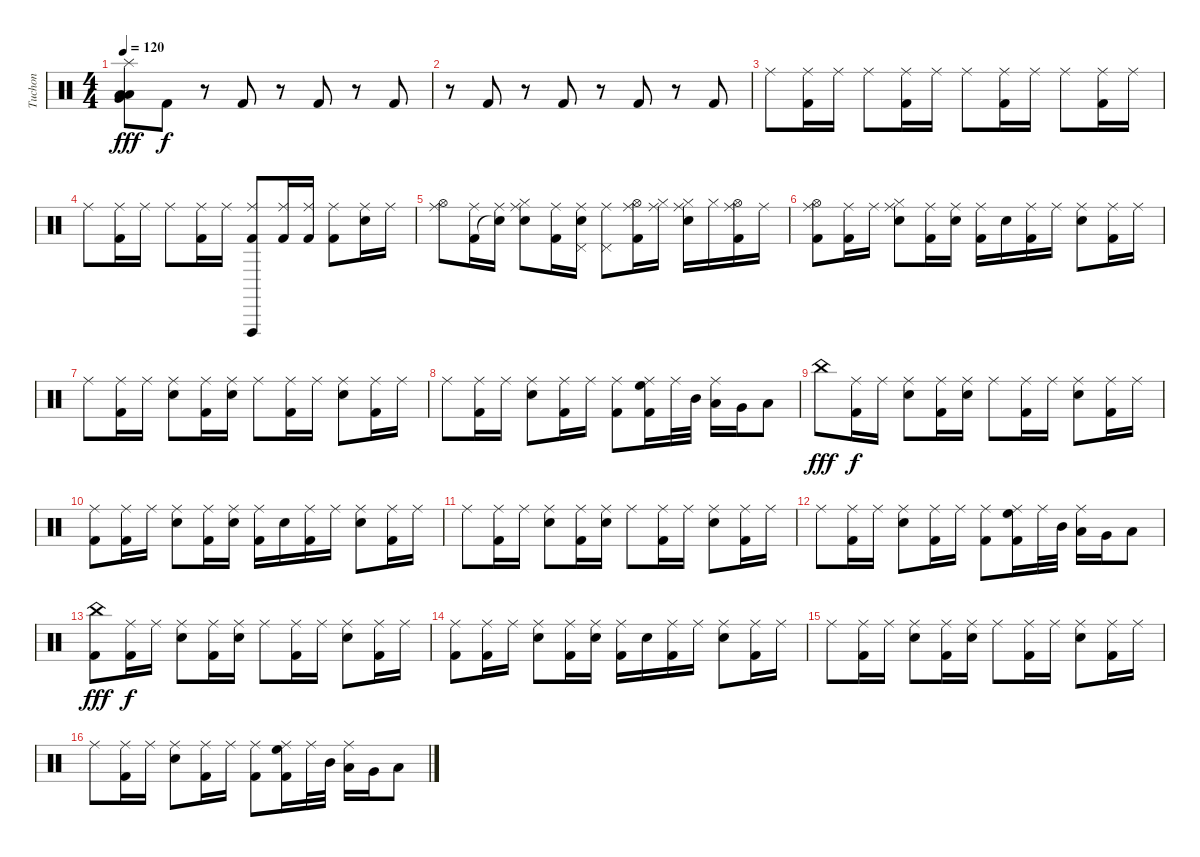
\track ("Tuchon" "Tuchon") {instrument percussion}
\staff {score}
\articulation defaults
\ts (4 4)
\tempo 120
\clef neutral
\ks c
("Splash (hit)" "Low Tom (hit)" "Very Low Tom (hit)" "Low Floor Tom (hit)").8{dy fff} "Kick (hit) 2".8{dy f} r.8 "Kick (hit) 2".8 r.8 "Kick (hit) 2".8 r.8 "Kick (hit) 2".8 |
r.8 "Kick (hit) 2".8 r.8 "Kick (hit) 2".8 r.8 "Kick (hit) 2".8 r.8 "Kick (hit) 2".8 |
"Ride (middle)".8 ("Ride (middle)" "Kick (hit) 2").16 "Ride (middle)".16 "Ride (middle)".8 ("Ride (middle)" "Kick (hit) 2").16 "Ride (middle)".16 "Ride (middle)".8 ("Ride (middle)" "Kick (hit) 2").16 "Ride (middle)".16 "Ride (middle)".8 ("Ride (middle)" "Kick (hit) 2").16 "Ride (middle)".16 |
"Ride (middle)".8 ("Ride (middle)" "Kick (hit) 2").16 "Ride (middle)".16 "Ride (middle)".8 ("Ride (middle)" "Kick (hit) 2").16 "Ride (middle)".16 ("Ride (middle)" "Vibraslap (hit)" "Kick (hit) 2").8 ("Ride (middle)" "Kick (hit) 2").16 ("Ride (middle)" "Kick (hit) 2").16 ("Ride (middle)" "Kick (hit) 2").8 ("Ride (middle)" "Electric Snare (hit)").16 "Ride (middle)".16 |
("Ride (middle)" "Hi-Hat (open)").8 ("Ride (middle)" "Kick (hit) 2").16 ("Ride (middle)" "Snare (hit)"{t}).16 ("Ride (middle)" "Hi-Hat (closed)" "Electric Snare (hit)").8 ("Ride (middle)" "Kick (hit) 2").16 ("Ride (middle)" "Pedal Hi-Hat (hit)" "Electric Snare (hit)").16 ("Ride (middle)" "Pedal Hi-Hat (hit)").8 ("Ride (middle)" "Hi-Hat (open)" "Kick (hit) 2").16 ("Ride (middle)" "Hi-Hat (closed)").16 ("Ride (middle)" "Hi-Hat (closed)" "Electric Snare (hit)").16 "Hi-Hat (closed)".16 ("Ride (middle)" "Hi-Hat (open)" "Kick (hit) 2").16 "Ride (middle)".16 |
("Ride (middle)" "Hi-Hat (open)" "Kick (hit) 2").8 ("Ride (middle)" "Kick (hit) 2").16 "Ride (middle)".16 ("Ride (middle)" "Hi-Hat (closed)" "Electric Snare (hit)").8 ("Ride (middle)" "Kick (hit) 2").16 ("Ride (middle)" "Electric Snare (hit)").16 ("Ride (middle)" "Kick (hit) 2").16 "Electric Snare (hit)".16 ("Ride (middle)" "Kick (hit) 2").16 "Ride (middle)".16 ("Ride (middle)" "Electric Snare (hit)").8 ("Ride (middle)" "Kick (hit) 2").16 "Ride (middle)".16 |
"Ride (middle)".8 ("Ride (middle)" "Kick (hit) 2").16 "Ride (middle)".16 ("Ride (middle)" "Electric Snare (hit)").8 ("Ride (middle)" "Kick (hit) 2").16 ("Ride (middle)" "Electric Snare (hit)").16 "Ride (middle)".8 ("Ride (middle)" "Kick (hit) 2").16 "Ride (middle)".16 ("Ride (middle)" "Electric Snare (hit)").8 ("Ride (middle)" "Kick (hit) 2").16 "Ride (middle)".16 |
"Ride (middle)".8 ("Ride (middle)" "Kick (hit) 2").16 "Ride (middle)".16 ("Ride (middle)" "Electric Snare (hit)").8 ("Ride (middle)" "Kick (hit) 2").16 "Ride (middle)".16 ("Ride (middle)" "Kick (hit) 2").8 ("Ride (middle)" "High Floor Tom (hit)" "Kick (hit) 2").16 "Ride (middle)".32 "Mid Tom (hit)".32 ("Ride (middle)" "Low Tom (hit)").16 "Very Low Tom (hit)".16 "Low Floor Tom (hit)".8 |
"China (hit)".8{dy fff} ("Ride (middle)" "Kick (hit) 2").16{dy f} "Ride (middle)".16 ("Ride (middle)" "Electric Snare (hit)").8 ("Ride (middle)" "Kick (hit) 2").16 ("Ride (middle)" "Electric Snare (hit)").16 "Ride (middle)".8 ("Ride (middle)" "Kick (hit) 2").16 "Ride (middle)".16 ("Ride (middle)" "Electric Snare (hit)").8 ("Ride (middle)" "Kick (hit) 2").16 "Ride (middle)".16 |
("Ride (middle)" "Kick (hit) 2").8 ("Ride (middle)" "Kick (hit) 2").16 "Ride (middle)".16 ("Ride (middle)" "Electric Snare (hit)").8 ("Ride (middle)" "Kick (hit) 2").16 ("Ride (middle)" "Electric Snare (hit)").16 ("Ride (middle)" "Kick (hit) 2").16 "Electric Snare (hit)".16 ("Ride (middle)" "Kick (hit) 2").16 "Ride (middle)".16 ("Ride (middle)" "Electric Snare (hit)").8 ("Ride (middle)" "Kick (hit) 2").16 "Ride (middle)".16 |
"Ride (middle)".8 ("Ride (middle)" "Kick (hit) 2").16 "Ride (middle)".16 ("Ride (middle)" "Electric Snare (hit)").8 ("Ride (middle)" "Kick (hit) 2").16 ("Ride (middle)" "Electric Snare (hit)").16 "Ride (middle)".8 ("Ride (middle)" "Kick (hit) 2").16 "Ride (middle)".16 ("Ride (middle)" "Electric Snare (hit)").8 ("Ride (middle)" "Kick (hit) 2").16 "Ride (middle)".16 |
"Ride (middle)".8 ("Ride (middle)" "Kick (hit) 2").16 "Ride (middle)".16 ("Ride (middle)" "Electric Snare (hit)").8 ("Ride (middle)" "Kick (hit) 2").16 "Ride (middle)".16 ("Ride (middle)" "Kick (hit) 2").8 ("Ride (middle)" "High Floor Tom (hit)" "Kick (hit) 2").16 "Ride (middle)".32 "Mid Tom (hit)".32 ("Ride (middle)" "Low Tom (hit)").16 "Very Low Tom (hit)".16 "Low Floor Tom (hit)".8 |
("China (hit)" "Kick (hit) 2").8{dy fff} ("Ride (middle)" "Kick (hit) 2").16{dy f} "Ride (middle)".16 ("Ride (middle)" "Electric Snare (hit)").8 ("Ride (middle)" "Kick (hit) 2").16 ("Ride (middle)" "Electric Snare (hit)").16 "Ride (middle)".8 ("Ride (middle)" "Kick (hit) 2").16 "Ride (middle)".16 ("Ride (middle)" "Electric Snare (hit)").8 ("Ride (middle)" "Kick (hit) 2").16 "Ride (middle)".16 |
("Ride (middle)" "Kick (hit) 2").8 ("Ride (middle)" "Kick (hit) 2").16 "Ride (middle)".16 ("Ride (middle)" "Electric Snare (hit)").8 ("Ride (middle)" "Kick (hit) 2").16 ("Ride (middle)" "Electric Snare (hit)").16 ("Ride (middle)" "Kick (hit) 2").16 "Electric Snare (hit)".16 ("Ride (middle)" "Kick (hit) 2").16 "Ride (middle)".16 ("Ride (middle)" "Electric Snare (hit)").8 ("Ride (middle)" "Kick (hit) 2").16 "Ride (middle)".16 |
"Ride (middle)".8 ("Ride (middle)" "Kick (hit) 2").16 "Ride (middle)".16 ("Ride (middle)" "Electric Snare (hit)").8 ("Ride (middle)" "Kick (hit) 2").16 ("Ride (middle)" "Electric Snare (hit)").16 "Ride (middle)".8 ("Ride (middle)" "Kick (hit) 2").16 "Ride (middle)".16 ("Ride (middle)" "Electric Snare (hit)").8 ("Ride (middle)" "Kick (hit) 2").16 "Ride (middle)".16 |
"Ride (middle)".8 ("Ride (middle)" "Kick (hit) 2").16 "Ride (middle)".16 ("Ride (middle)" "Electric Snare (hit)").8 ("Ride (middle)" "Kick (hit) 2").16 "Ride (middle)".16 ("Ride (middle)" "Kick (hit) 2").8 ("Ride (middle)" "High Floor Tom (hit)" "Kick (hit) 2").16 "Ride (middle)".32 "Mid Tom (hit)".32 ("Ride (middle)" "Low Tom (hit)").16 "Very Low Tom (hit)".16 "Low Floor Tom (hit)".8
